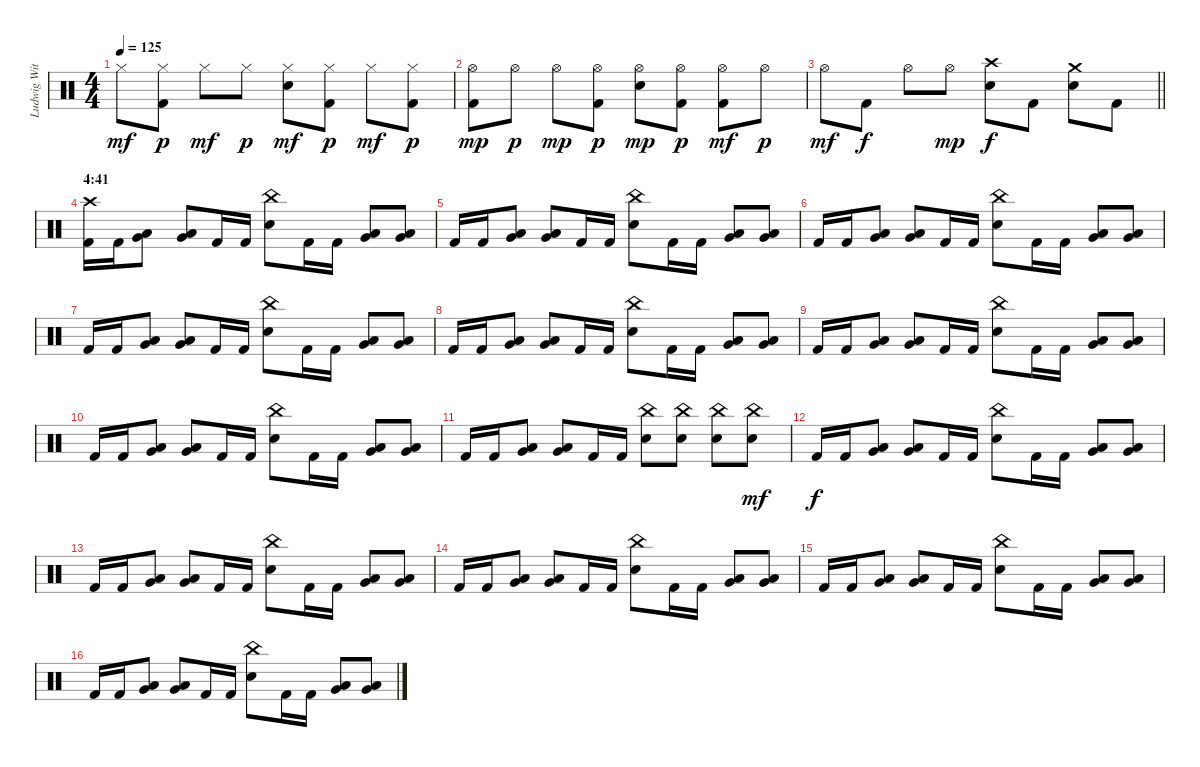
\track ("Ludwig Witt" "Ludwig Wit") {instrument percussion}
\staff {score}
\articulation defaults
\ts (4 4)
\tempo 125
\clef neutral
\ks c "Hi-Hat (closed)".8{dy mf}
("Hi-Hat (closed)" "Kick (hit) 2").8{dy p} "Hi-Hat (closed)".8{dy mf} "Hi-Hat (closed)".8{dy p} ("Hi-Hat (closed)" "Electric Snare (hit)").8{dy mf} ("Hi-Hat (closed)" "Kick (hit) 2").8{dy p} "Hi-Hat (closed)".8{dy mf} ("Hi-Hat (closed)" "Kick (hit) 2").8{dy p} |
("Hi-Hat (open)" "Kick (hit) 2").8{dy mp} "Hi-Hat (open)".8{dy p} "Hi-Hat (open)".8{dy mp} ("Hi-Hat (open)" "Kick (hit) 2").8{dy p} ("Hi-Hat (open)" "Electric Snare (hit)").8{dy mp} ("Hi-Hat (open)" "Kick (hit) 2").8{dy p} ("Hi-Hat (open)" "Kick (hit) 2").8{dy mf} "Hi-Hat (open)".8{dy p} |
\barLineRight lightlight "Hi-Hat (open)".8{dy mf} "Kick (hit) 2".8{dy f} "Hi-Hat (open)".8 "Hi-Hat (open)".8{dy mp}
("Crash high (hit)" "Electric Snare (hit)").8{dy f} "Kick (hit) 2".8 ("Crash medium (hit)" "Electric Snare (hit)").8 "Kick (hit) 2".8 |
\section ("" "4:41")
("Crash high (hit)" "Kick (hit) 2").16{volume 16} "Kick (hit) 2".16 ("Low Tom (hit)" "Very Low Tom (hit)").8 ("Very Low Tom (hit)" "Low Floor Tom (hit)").8 "Kick (hit) 2".16 "Kick (hit) 2".16 ("China (hit)" "Electric Snare (hit)").8 "Kick (hit) 2".16 "Kick (hit) 2".16 ("Low Tom (hit)" "Very Low Tom (hit)").8 ("Very Low Tom (hit)" "Low Floor Tom (hit)").8 |
"Kick (hit) 2".16 "Kick (hit) 2".16 ("Low Tom (hit)" "Very Low Tom (hit)").8 ("Very Low Tom (hit)" "Low Floor Tom (hit)").8 "Kick (hit) 2".16 "Kick (hit) 2".16 ("China (hit)" "Electric Snare (hit)").8 "Kick (hit) 2".16 "Kick (hit) 2".16 ("Low Tom (hit)" "Very Low Tom (hit)").8 ("Very Low Tom (hit)" "Low Floor Tom (hit)").8 |
"Kick (hit) 2".16 "Kick (hit) 2".16 ("Low Tom (hit)" "Very Low Tom (hit)").8 ("Very Low Tom (hit)" "Low Floor Tom (hit)").8 "Kick (hit) 2".16 "Kick (hit) 2".16 ("China (hit)" "Electric Snare (hit)").8 "Kick (hit) 2".16 "Kick (hit) 2".16 ("Low Tom (hit)" "Very Low Tom (hit)").8 ("Very Low Tom (hit)" "Low Floor Tom (hit)").8 |
"Kick (hit) 2".16 "Kick (hit) 2".16 ("Low Tom (hit)" "Very Low Tom (hit)").8 ("Very Low Tom (hit)" "Low Floor Tom (hit)").8 "Kick (hit) 2".16 "Kick (hit) 2".16 ("China (hit)" "Electric Snare (hit)").8 "Kick (hit) 2".16 "Kick (hit) 2".16 ("Low Tom (hit)" "Very Low Tom (hit)").8 ("Very Low Tom (hit)" "Low Floor Tom (hit)").8 |
"Kick (hit) 2".16 "Kick (hit) 2".16 ("Low Tom (hit)" "Very Low Tom (hit)").8 ("Very Low Tom (hit)" "Low Floor Tom (hit)").8 "Kick (hit) 2".16 "Kick (hit) 2".16 ("China (hit)" "Electric Snare (hit)").8 "Kick (hit) 2".16 "Kick (hit) 2".16 ("Low Tom (hit)" "Very Low Tom (hit)").8 ("Very Low Tom (hit)" "Low Floor Tom (hit)").8 |
"Kick (hit) 2".16 "Kick (hit) 2".16 ("Low Tom (hit)" "Very Low Tom (hit)").8 ("Very Low Tom (hit)" "Low Floor Tom (hit)").8 "Kick (hit) 2".16 "Kick (hit) 2".16 ("China (hit)" "Electric Snare (hit)").8 "Kick (hit) 2".16 "Kick (hit) 2".16 ("Low Tom (hit)" "Very Low Tom (hit)").8 ("Very Low Tom (hit)" "Low Floor Tom (hit)").8 |
"Kick (hit) 2".16 "Kick (hit) 2".16 ("Low Tom (hit)" "Very Low Tom (hit)").8 ("Very Low Tom (hit)" "Low Floor Tom (hit)").8 "Kick (hit) 2".16 "Kick (hit) 2".16 ("China (hit)" "Electric Snare (hit)").8 "Kick (hit) 2".16 "Kick (hit) 2".16 ("Low Tom (hit)" "Very Low Tom (hit)").8 ("Very Low Tom (hit)" "Low Floor Tom (hit)").8 |
"Kick (hit) 2".16 "Kick (hit) 2".16 ("Low Tom (hit)" "Very Low Tom (hit)").8 ("Very Low Tom (hit)" "Low Floor Tom (hit)").8 "Kick (hit) 2".16 "Kick (hit) 2".16 ("China (hit)" "Electric Snare (hit)").8 ("China (hit)" "Electric Snare (hit)").8 ("China (hit)" "Electric Snare (hit)").8 ("China (hit)" "Electric Snare (hit)").8{dy mf} |
"Kick (hit) 2".16{dy f} "Kick (hit) 2".16 ("Low Tom (hit)" "Very Low Tom (hit)").8 ("Very Low Tom (hit)" "Low Floor Tom (hit)").8 "Kick (hit) 2".16 "Kick (hit) 2".16 ("China (hit)" "Electric Snare (hit)").8 "Kick (hit) 2".16 "Kick (hit) 2".16 ("Low Tom (hit)" "Very Low Tom (hit)").8 ("Very Low Tom (hit)" "Low Floor Tom (hit)").8 |
"Kick (hit) 2".16 "Kick (hit) 2".16 ("Low Tom (hit)" "Very Low Tom (hit)").8 ("Very Low Tom (hit)" "Low Floor Tom (hit)").8 "Kick (hit) 2".16 "Kick (hit) 2".16 ("China (hit)" "Electric Snare (hit)").8 "Kick (hit) 2".16 "Kick (hit) 2".16 ("Low Tom (hit)" "Very Low Tom (hit)").8 ("Very Low Tom (hit)" "Low Floor Tom (hit)").8 |
"Kick (hit) 2".16 "Kick (hit) 2".16 ("Low Tom (hit)" "Very Low Tom (hit)").8 ("Very Low Tom (hit)" "Low Floor Tom (hit)").8 "Kick (hit) 2".16 "Kick (hit) 2".16 ("China (hit)" "Electric Snare (hit)").8 "Kick (hit) 2".16 "Kick (hit) 2".16 ("Low Tom (hit)" "Very Low Tom (hit)").8 ("Very Low Tom (hit)" "Low Floor Tom (hit)").8 |
"Kick (hit) 2".16 "Kick (hit) 2".16 ("Low Tom (hit)" "Very Low Tom (hit)").8 ("Very Low Tom (hit)" "Low Floor Tom (hit)").8 "Kick (hit) 2".16 "Kick (hit) 2".16 ("China (hit)" "Electric Snare (hit)").8 "Kick (hit) 2".16 "Kick (hit) 2".16 ("Low Tom (hit)" "Very Low Tom (hit)").8 ("Very Low Tom (hit)" "Low Floor Tom (hit)").8 |
"Kick (hit) 2".16 "Kick (hit) 2".16 ("Low Tom (hit)" "Very Low Tom (hit)").8 ("Very Low Tom (hit)" "Low Floor Tom (hit)").8 "Kick (hit) 2".16 "Kick (hit) 2".16 ("China (hit)" "Electric Snare (hit)").8 "Kick (hit) 2".16 "Kick (hit) 2".16 ("Low Tom (hit)" "Very Low Tom (hit)").8 ("Very Low Tom (hit)" "Low Floor Tom (hit)").8
